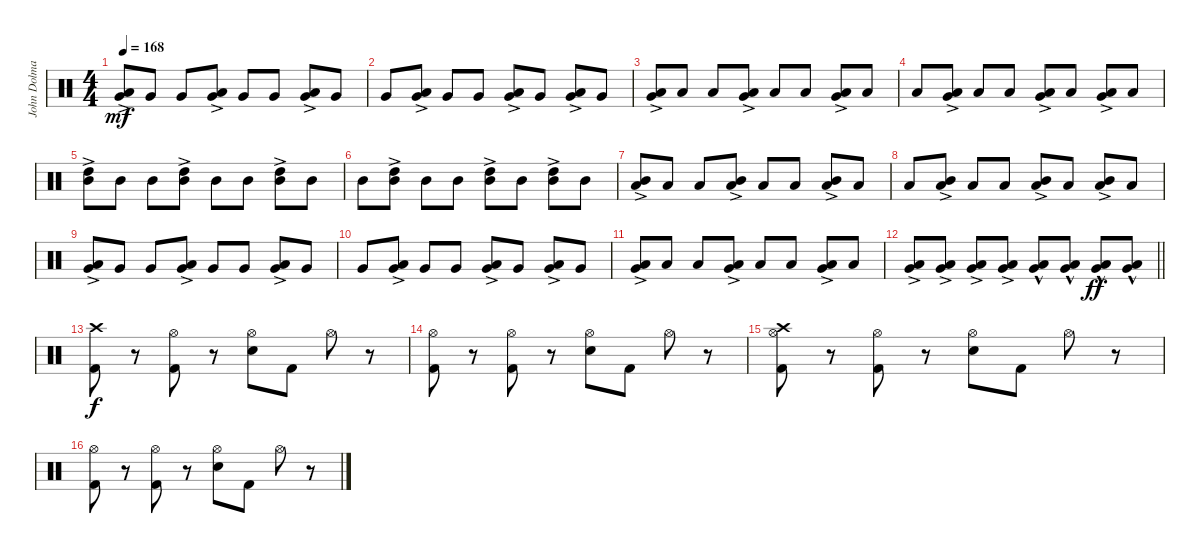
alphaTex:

\track ("John Dolmayan" "John Dolma") {instrument percussion}
\staff {score}
\articulation defaults
\ts (4 4)
\tempo 168
\clef neutral
\ks c
("Low Tom (hit)"{ac} "Very Low Tom (hit)").8{dy mf} "Very Low Tom (hit)".8 "Very Low Tom (hit)".8 ("Low Tom (hit)"{ac} "Very Low Tom (hit)").8 "Very Low Tom (hit)".8 "Very Low Tom (hit)".8 ("Low Tom (hit)"{ac} "Very Low Tom (hit)").8 "Very Low Tom (hit)".8 |
"Very Low Tom (hit)".8 ("Low Tom (hit)"{ac} "Very Low Tom (hit)").8 "Very Low Tom (hit)".8 "Very Low Tom (hit)".8 ("Low Tom (hit)"{ac} "Very Low Tom (hit)").8 "Very Low Tom (hit)".8 ("Low Tom (hit)"{ac} "Very Low Tom (hit)").8 "Very Low Tom (hit)".8 |
("Very Low Tom (hit)"{ac} "Low Floor Tom (hit)").8 "Low Floor Tom (hit)".8 "Low Floor Tom (hit)".8 ("Very Low Tom (hit)"{ac} "Low Floor Tom (hit)").8 "Low Floor Tom (hit)".8 "Low Floor Tom (hit)".8 ("Very Low Tom (hit)"{ac} "Low Floor Tom (hit)").8 "Low Floor Tom (hit)".8 |
"Low Floor Tom (hit)".8 ("Very Low Tom (hit)"{ac} "Low Floor Tom (hit)").8 "Low Floor Tom (hit)".8 "Low Floor Tom (hit)".8 ("Very Low Tom (hit)"{ac} "Low Floor Tom (hit)").8 "Low Floor Tom (hit)".8 ("Very Low Tom (hit)"{ac} "Low Floor Tom (hit)").8 "Low Floor Tom (hit)".8 |
("High Tom (hit)"{ac} "Mid Tom (hit)").8 "Mid Tom (hit)".8 "Mid Tom (hit)".8 ("High Tom (hit)"{ac} "Mid Tom (hit)").8 "Mid Tom (hit)".8 "Mid Tom (hit)".8 ("High Tom (hit)"{ac} "Mid Tom (hit)").8 "Mid Tom (hit)".8 |
"Mid Tom (hit)".8 ("High Tom (hit)"{ac} "Mid Tom (hit)").8 "Mid Tom (hit)".8 "Mid Tom (hit)".8 ("High Tom (hit)"{ac} "Mid Tom (hit)").8 "Mid Tom (hit)".8 ("High Tom (hit)"{ac} "Mid Tom (hit)").8 "Mid Tom (hit)".8 |
("Mid Tom (hit)"{ac} "Low Tom (hit)").8 "Low Tom (hit)".8 "Low Tom (hit)".8 ("Mid Tom (hit)"{ac} "Low Tom (hit)").8 "Low Tom (hit)".8 "Low Tom (hit)".8 ("Mid Tom (hit)"{ac} "Low Tom (hit)").8 "Low Tom (hit)".8 |
"Low Tom (hit)".8 ("Mid Tom (hit)"{ac} "Low Tom (hit)").8 "Low Tom (hit)".8 "Low Tom (hit)".8 ("Mid Tom (hit)"{ac} "Low Tom (hit)").8 "Low Tom (hit)".8 ("Mid Tom (hit)"{ac} "Low Tom (hit)").8 "Low Tom (hit)".8 |
("Low Tom (hit)"{ac} "Very Low Tom (hit)").8 "Very Low Tom (hit)".8 "Very Low Tom (hit)".8 ("Low Tom (hit)"{ac} "Very Low Tom (hit)").8 "Very Low Tom (hit)".8 "Very Low Tom (hit)".8 ("Low Tom (hit)"{ac} "Very Low Tom (hit)").8 "Very Low Tom (hit)".8 |
"Very Low Tom (hit)".8 ("Low Tom (hit)"{ac} "Very Low Tom (hit)").8 "Very Low Tom (hit)".8 "Very Low Tom (hit)".8 ("Low Tom (hit)"{ac} "Very Low Tom (hit)").8 "Very Low Tom (hit)".8 ("Low Tom (hit)"{ac} "Very Low Tom (hit)").8 "Very Low Tom (hit)".8 |
("Very Low Tom (hit)"{ac} "Low Floor Tom (hit)").8 "Low Floor Tom (hit)".8 "Low Floor Tom (hit)".8 ("Very Low Tom (hit)"{ac} "Low Floor Tom (hit)").8 "Low Floor Tom (hit)".8 "Low Floor Tom (hit)".8 ("Very Low Tom (hit)"{ac} "Low Floor Tom (hit)").8 "Low Floor Tom (hit)".8 |
\barLineRight lightlight
("Very Low Tom (hit)"{ac} "Low Floor Tom (hit)").8 ("Very Low Tom (hit)"{ac} "Low Floor Tom (hit)").8 ("Very Low Tom (hit)"{ac} "Low Floor Tom (hit)").8 ("Very Low Tom (hit)"{ac} "Low Floor Tom (hit)").8 ("Very Low Tom (hit)"{hac} "Low Floor Tom (hit)").8 ("Very Low Tom (hit)"{hac} "Low Floor Tom (hit)").8 ("Very Low Tom (hit)"{hac} "Low Floor Tom (hit)"{hac}).8{dy ff} ("Very Low Tom (hit)"{hac} "Low Floor Tom (hit)"{hac}).8 |
("Crash high (hit)" "Kick (hit) 2").8{dy f} r.8 ("Hi-Hat (open)" "Kick (hit) 2").8 r.8 ("Hi-Hat (open)" "Electric Snare (hit)").8 "Kick (hit) 2".8 "Hi-Hat (open)".8 r.8 |
("Hi-Hat (open)" "Kick (hit) 2").8 r.8 ("Hi-Hat (open)" "Kick (hit) 2").8 r.8 ("Hi-Hat (open)" "Electric Snare (hit)").8 "Kick (hit) 2".8 "Hi-Hat (open)".8 r.8 |
("Crash high (hit)" "Hi-Hat (open)" "Kick (hit) 2").8 r.8 ("Hi-Hat (open)" "Kick (hit) 2").8 r.8 ("Hi-Hat (open)" "Electric Snare (hit)").8 "Kick (hit) 2".8 "Hi-Hat (open)".8 r.8 |
("Hi-Hat (open)" "Kick (hit) 2").8 r.8 ("Hi-Hat (open)" "Kick (hit) 2").8 r.8 ("Hi-Hat (open)" "Electric Snare (hit)").8 "Kick (hit) 2".8 "Hi-Hat (open)".8 r.8
